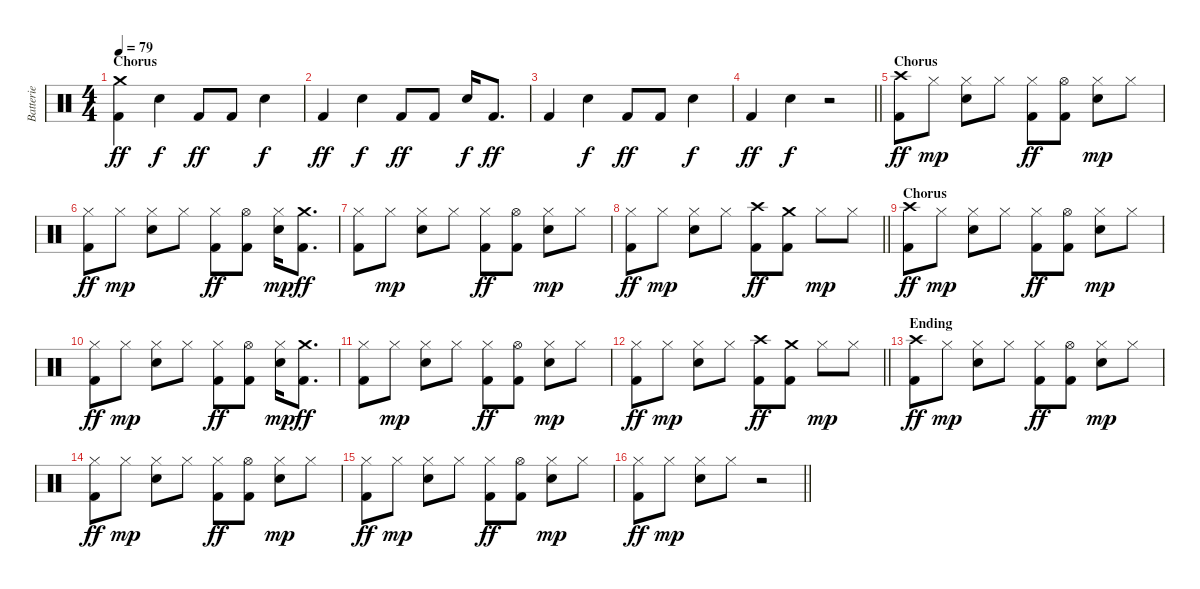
\track ("Batterie" "Batterie") {instrument percussion}
\staff {score}
\articulation defaults
\ts (4 4)
\section ("" "Chorus")
\tempo 79
\clef neutral
\ks c
("Crash medium (hit)" "Kick (hit) 2").4{dy ff} "Electric Snare (hit)".4{dy f} "Kick (hit) 2".8{dy ff} "Kick (hit) 2".8 "Electric Snare (hit)".4{dy f} |
"Kick (hit) 2".4{dy ff} "Electric Snare (hit)".4{dy f} "Kick (hit) 2".8{dy ff} "Kick (hit) 2".8 "Electric Snare (hit)".16{dy f} "Kick (hit) 2".8{d dy ff} |
"Kick (hit) 2".4 "Electric Snare (hit)".4{dy f} "Kick (hit) 2".8{dy ff} "Kick (hit) 2".8 "Electric Snare (hit)".4{dy f} |
\barLineRight lightlight "Kick (hit) 2".4{dy ff} "Electric Snare (hit)".4{dy f}
r.2 |
\section ("" "Chorus")
("Crash high (hit)" "Kick (hit) 2").8{dy ff} "Hi-Hat (closed)".8{dy mp} ("Hi-Hat (closed)" "Electric Snare (hit)").8 "Hi-Hat (closed)".8 ("Hi-Hat (closed)" "Kick (hit) 2").8{dy ff} ("Hi-Hat (open)" "Kick (hit) 2").8 ("Hi-Hat (closed)" "Electric Snare (hit)").8{dy mp} "Hi-Hat (closed)".8 |
("Hi-Hat (closed)" "Kick (hit) 2").8{dy ff} "Hi-Hat (closed)".8{dy mp} ("Hi-Hat (closed)" "Electric Snare (hit)").8 "Hi-Hat (closed)".8 ("Hi-Hat (closed)" "Kick (hit) 2").8{dy ff} ("Hi-Hat (open)" "Kick (hit) 2").8 ("Hi-Hat (closed)" "Electric Snare (hit)").16{dy mp} ("Crash medium (hit)" "Kick (hit) 2").8{d dy ff} |
("Hi-Hat (closed)" "Kick (hit) 2").8 "Hi-Hat (closed)".8{dy mp} ("Hi-Hat (closed)" "Electric Snare (hit)").8 "Hi-Hat (closed)".8 ("Hi-Hat (closed)" "Kick (hit) 2").8{dy ff} ("Hi-Hat (open)" "Kick (hit) 2").8 ("Hi-Hat (closed)" "Electric Snare (hit)").8{dy mp} "Hi-Hat (closed)".8 |
\barLineRight lightlight
("Hi-Hat (closed)" "Kick (hit) 2").8{dy ff} "Hi-Hat (closed)".8{dy mp} ("Hi-Hat (closed)" "Electric Snare (hit)").8 "Hi-Hat (closed)".8 ("Crash high (hit)" "Kick (hit) 2").8{dy ff} ("Crash medium (hit)" "Kick (hit) 2").8 "Hi-Hat (closed)".8{dy mp} "Hi-Hat (closed)".8 |
\section ("" "Chorus")
("Crash high (hit)" "Kick (hit) 2").8{dy ff} "Hi-Hat (closed)".8{dy mp} ("Hi-Hat (closed)" "Electric Snare (hit)").8 "Hi-Hat (closed)".8 ("Hi-Hat (closed)" "Kick (hit) 2").8{dy ff} ("Hi-Hat (open)" "Kick (hit) 2").8 ("Hi-Hat (closed)" "Electric Snare (hit)").8{dy mp} "Hi-Hat (closed)".8 |
("Hi-Hat (closed)" "Kick (hit) 2").8{dy ff} "Hi-Hat (closed)".8{dy mp} ("Hi-Hat (closed)" "Electric Snare (hit)").8 "Hi-Hat (closed)".8 ("Hi-Hat (closed)" "Kick (hit) 2").8{dy ff} ("Hi-Hat (open)" "Kick (hit) 2").8 ("Hi-Hat (closed)" "Electric Snare (hit)").16{dy mp} ("Crash medium (hit)" "Kick (hit) 2").8{d dy ff} |
("Hi-Hat (closed)" "Kick (hit) 2").8 "Hi-Hat (closed)".8{dy mp} ("Hi-Hat (closed)" "Electric Snare (hit)").8 "Hi-Hat (closed)".8 ("Hi-Hat (closed)" "Kick (hit) 2").8{dy ff} ("Hi-Hat (open)" "Kick (hit) 2").8 ("Hi-Hat (closed)" "Electric Snare (hit)").8{dy mp} "Hi-Hat (closed)".8 |
\barLineRight lightlight
("Hi-Hat (closed)" "Kick (hit) 2").8{dy ff} "Hi-Hat (closed)".8{dy mp} ("Hi-Hat (closed)" "Electric Snare (hit)").8 "Hi-Hat (closed)".8 ("Crash high (hit)" "Kick (hit) 2").8{dy ff} ("Crash medium (hit)" "Kick (hit) 2").8 "Hi-Hat (closed)".8{dy mp} "Hi-Hat (closed)".8 |
\section ("" "Ending")
("Crash high (hit)" "Kick (hit) 2").8{dy ff} "Hi-Hat (closed)".8{dy mp} ("Hi-Hat (closed)" "Electric Snare (hit)").8 "Hi-Hat (closed)".8 ("Hi-Hat (closed)" "Kick (hit) 2").8{dy ff} ("Hi-Hat (open)" "Kick (hit) 2").8 ("Hi-Hat (closed)" "Electric Snare (hit)").8{dy mp} "Hi-Hat (closed)".8 |
("Hi-Hat (closed)" "Kick (hit) 2").8{dy ff} "Hi-Hat (closed)".8{dy mp} ("Hi-Hat (closed)" "Electric Snare (hit)").8 "Hi-Hat (closed)".8 ("Hi-Hat (closed)" "Kick (hit) 2").8{dy ff} ("Hi-Hat (open)" "Kick (hit) 2").8 ("Hi-Hat (closed)" "Electric Snare (hit)").8{dy mp} "Hi-Hat (closed)".8 |
("Hi-Hat (closed)" "Kick (hit) 2").8{dy ff} "Hi-Hat (closed)".8{dy mp} ("Hi-Hat (closed)" "Electric Snare (hit)").8 "Hi-Hat (closed)".8 ("Hi-Hat (closed)" "Kick (hit) 2").8{dy ff} ("Hi-Hat (open)" "Kick (hit) 2").8 ("Hi-Hat (closed)" "Electric Snare (hit)").8{dy mp} "Hi-Hat (closed)".8 |
\barLineRight lightlight
("Hi-Hat (closed)" "Kick (hit) 2").8{dy ff} "Hi-Hat (closed)".8{dy mp} ("Hi-Hat (closed)" "Electric Snare (hit)").8 "Hi-Hat (closed)".8 r.2
